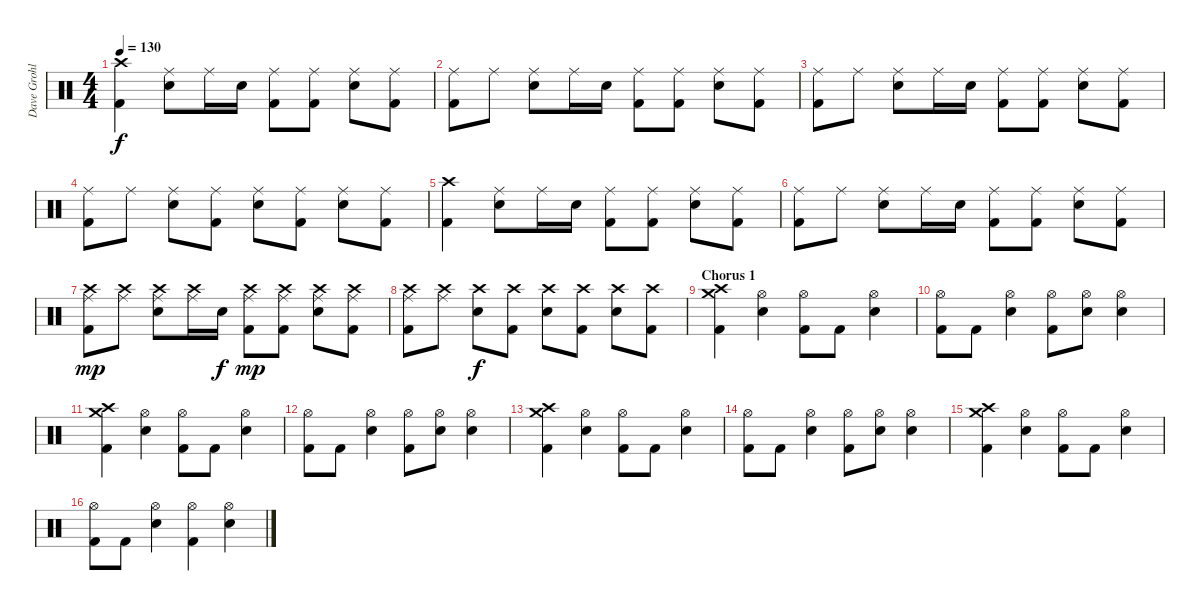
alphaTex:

\track ("Dave Grohl" "Dave Grohl") {instrument percussion}
\staff {score}
\articulation defaults
\ts (4 4)
\tempo 130
\clef neutral
\ks c
("Crash high (hit)" "Kick (hit) 2").4{dy f} ("Ride (middle)" "Electric Snare (hit)").8 "Ride (middle)".16 "Electric Snare (hit)".16 ("Ride (middle)" "Kick (hit) 2").8 ("Ride (middle)" "Kick (hit) 2").8 ("Ride (middle)" "Electric Snare (hit)").8 ("Ride (middle)" "Kick (hit) 2").8 |
("Ride (middle)" "Kick (hit) 2").8 "Ride (middle)".8 ("Ride (middle)" "Electric Snare (hit)").8 "Ride (middle)".16 "Electric Snare (hit)".16 ("Ride (middle)" "Kick (hit) 2").8 ("Ride (middle)" "Kick (hit) 2").8 ("Ride (middle)" "Electric Snare (hit)").8 ("Ride (middle)" "Kick (hit) 2").8 |
("Ride (middle)" "Kick (hit) 2").8 "Ride (middle)".8 ("Ride (middle)" "Electric Snare (hit)").8 "Ride (middle)".16 "Electric Snare (hit)".16 ("Ride (middle)" "Kick (hit) 2").8 ("Ride (middle)" "Kick (hit) 2").8 ("Ride (middle)" "Electric Snare (hit)").8 ("Ride (middle)" "Kick (hit) 2").8 |
("Ride (middle)" "Kick (hit) 2").8 "Ride (middle)".8 ("Ride (middle)" "Electric Snare (hit)").8 ("Ride (middle)" "Kick (hit) 2").8 ("Ride (middle)" "Electric Snare (hit)").8 ("Ride (middle)" "Kick (hit) 2").8 ("Ride (middle)" "Electric Snare (hit)").8 ("Ride (middle)" "Kick (hit) 2").8 |
("Crash high (hit)" "Kick (hit) 2").4 ("Ride (middle)" "Electric Snare (hit)").8 "Ride (middle)".16 "Electric Snare (hit)".16 ("Ride (middle)" "Kick (hit) 2").8 ("Ride (middle)" "Kick (hit) 2").8 ("Ride (middle)" "Electric Snare (hit)").8 ("Ride (middle)" "Kick (hit) 2").8 |
("Ride (middle)" "Kick (hit) 2").8 "Ride (middle)".8 ("Ride (middle)" "Electric Snare (hit)").8 "Ride (middle)".16 "Electric Snare (hit)".16 ("Ride (middle)" "Kick (hit) 2").8 ("Ride (middle)" "Kick (hit) 2").8 ("Ride (middle)" "Electric Snare (hit)").8 ("Ride (middle)" "Kick (hit) 2").8 |
("Ride (middle)" "Crash high (hit)" "Kick (hit) 2").8{dy mp} ("Ride (middle)" "Crash high (hit)").8 ("Ride (middle)" "Crash high (hit)" "Electric Snare (hit)").8 ("Ride (middle)" "Crash high (hit)").16 "Electric Snare (hit)".16{dy f} ("Ride (middle)" "Crash high (hit)" "Kick (hit) 2").8{dy mp} ("Ride (middle)" "Crash high (hit)" "Kick (hit) 2").8 ("Ride (middle)" "Crash high (hit)" "Electric Snare (hit)").8 ("Ride (middle)" "Crash high (hit)" "Kick (hit) 2").8 |
("Ride (middle)" "Crash high (hit)" "Kick (hit) 2").8 ("Ride (middle)" "Crash high (hit)").8 ("Crash high (hit)" "Electric Snare (hit)").8{dy f} ("Crash high (hit)" "Kick (hit) 2").8 ("Crash high (hit)" "Electric Snare (hit)").8 ("Crash high (hit)" "Kick (hit) 2").8 ("Crash high (hit)" "Electric Snare (hit)").8 ("Crash high (hit)" "Kick (hit) 2").8 |
\section ("" "Chorus 1")
("Crash high (hit)" "Crash medium (hit)" "Kick (hit) 2").4 ("Hi-Hat (open)" "Electric Snare (hit)").4 ("Hi-Hat (open)" "Kick (hit) 2").8 "Kick (hit) 2".8 ("Hi-Hat (open)" "Electric Snare (hit)").4 |
("Hi-Hat (open)" "Kick (hit) 2").8 "Kick (hit) 2".8 ("Hi-Hat (open)" "Electric Snare (hit)").4 ("Hi-Hat (open)" "Kick (hit) 2").8 ("Hi-Hat (open)" "Electric Snare (hit)").8 ("Hi-Hat (open)" "Electric Snare (hit)").4 |
("Crash high (hit)" "Crash medium (hit)" "Kick (hit) 2").4 ("Hi-Hat (open)" "Electric Snare (hit)").4 ("Hi-Hat (open)" "Kick (hit) 2").8 "Kick (hit) 2".8 ("Hi-Hat (open)" "Electric Snare (hit)").4 |
("Hi-Hat (open)" "Kick (hit) 2").8 "Kick (hit) 2".8 ("Hi-Hat (open)" "Electric Snare (hit)").4 ("Hi-Hat (open)" "Kick (hit) 2").8 ("Hi-Hat (open)" "Electric Snare (hit)").8 ("Hi-Hat (open)" "Electric Snare (hit)").4 |
("Crash high (hit)" "Crash medium (hit)" "Kick (hit) 2").4 ("Hi-Hat (open)" "Electric Snare (hit)").4 ("Hi-Hat (open)" "Kick (hit) 2").8 "Kick (hit) 2".8 ("Hi-Hat (open)" "Electric Snare (hit)").4 |
("Hi-Hat (open)" "Kick (hit) 2").8 "Kick (hit) 2".8 ("Hi-Hat (open)" "Electric Snare (hit)").4 ("Hi-Hat (open)" "Kick (hit) 2").8 ("Hi-Hat (open)" "Electric Snare (hit)").8 ("Hi-Hat (open)" "Electric Snare (hit)").4 |
("Crash high (hit)" "Crash medium (hit)" "Kick (hit) 2").4 ("Hi-Hat (open)" "Electric Snare (hit)").4 ("Hi-Hat (open)" "Kick (hit) 2").8 "Kick (hit) 2".8 ("Hi-Hat (open)" "Electric Snare (hit)").4 |
("Hi-Hat (open)" "Kick (hit) 2").8 "Kick (hit) 2".8 ("Hi-Hat (open)" "Electric Snare (hit)").4 ("Hi-Hat (open)" "Kick (hit) 2").4 ("Hi-Hat (open)" "Electric Snare (hit)").4
